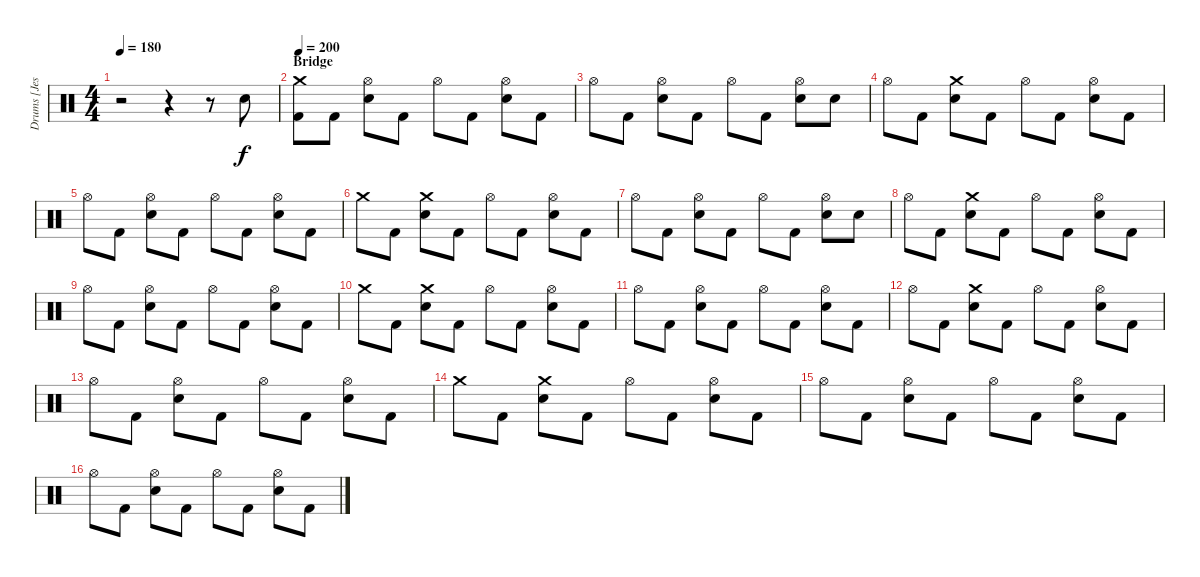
\track ("Drums [Jesse Ingelevics]" "Drums [Jes") {instrument percussion}
\staff {score}
\articulation defaults
\ts (4 4)
\tempo 180
\clef neutral
\ks c
r.2{dy f} r.4 r.8 "Electric Snare (hit)".8 |
\section ("" "Bridge")
\tempo 200
("Crash medium (hit)" "Kick (hit) 2").8 "Kick (hit) 2".8 ("Hi-Hat (open)" "Electric Snare (hit)").8 "Kick (hit) 2".8 "Hi-Hat (open)".8 "Kick (hit) 2".8 ("Hi-Hat (open)" "Electric Snare (hit)").8 "Kick (hit) 2".8 |
"Hi-Hat (open)".8 "Kick (hit) 2".8 ("Hi-Hat (open)" "Electric Snare (hit)").8 "Kick (hit) 2".8 "Hi-Hat (open)".8 "Kick (hit) 2".8 ("Hi-Hat (open)" "Electric Snare (hit)").8 "Electric Snare (hit)".8 |
"Hi-Hat (open)".8 "Kick (hit) 2".8 ("Crash medium (hit)" "Electric Snare (hit)").8 "Kick (hit) 2".8 "Hi-Hat (open)".8 "Kick (hit) 2".8 ("Hi-Hat (open)" "Electric Snare (hit)").8 "Kick (hit) 2".8 |
"Hi-Hat (open)".8 "Kick (hit) 2".8 ("Hi-Hat (open)" "Electric Snare (hit)").8 "Kick (hit) 2".8 "Hi-Hat (open)".8 "Kick (hit) 2".8 ("Hi-Hat (open)" "Electric Snare (hit)").8 "Kick (hit) 2".8 |
"Crash medium (hit)".8 "Kick (hit) 2".8 ("Crash medium (hit)" "Electric Snare (hit)").8 "Kick (hit) 2".8 "Hi-Hat (open)".8 "Kick (hit) 2".8 ("Hi-Hat (open)" "Electric Snare (hit)").8 "Kick (hit) 2".8 |
"Hi-Hat (open)".8 "Kick (hit) 2".8 ("Hi-Hat (open)" "Electric Snare (hit)").8 "Kick (hit) 2".8 "Hi-Hat (open)".8 "Kick (hit) 2".8 ("Hi-Hat (open)" "Electric Snare (hit)").8 "Electric Snare (hit)".8 |
"Hi-Hat (open)".8 "Kick (hit) 2".8 ("Crash medium (hit)" "Electric Snare (hit)").8 "Kick (hit) 2".8 "Hi-Hat (open)".8 "Kick (hit) 2".8 ("Hi-Hat (open)" "Electric Snare (hit)").8 "Kick (hit) 2".8 |
"Hi-Hat (open)".8 "Kick (hit) 2".8 ("Hi-Hat (open)" "Electric Snare (hit)").8 "Kick (hit) 2".8 "Hi-Hat (open)".8 "Kick (hit) 2".8 ("Hi-Hat (open)" "Electric Snare (hit)").8 "Kick (hit) 2".8 |
"Crash medium (hit)".8 "Kick (hit) 2".8 ("Crash medium (hit)" "Electric Snare (hit)").8 "Kick (hit) 2".8 "Hi-Hat (open)".8 "Kick (hit) 2".8 ("Hi-Hat (open)" "Electric Snare (hit)").8 "Kick (hit) 2".8 |
"Hi-Hat (open)".8 "Kick (hit) 2".8 ("Hi-Hat (open)" "Electric Snare (hit)").8 "Kick (hit) 2".8 "Hi-Hat (open)".8 "Kick (hit) 2".8 ("Hi-Hat (open)" "Electric Snare (hit)").8 "Kick (hit) 2".8 |
"Hi-Hat (open)".8 "Kick (hit) 2".8 ("Crash medium (hit)" "Electric Snare (hit)").8 "Kick (hit) 2".8 "Hi-Hat (open)".8 "Kick (hit) 2".8 ("Hi-Hat (open)" "Electric Snare (hit)").8 "Kick (hit) 2".8 |
"Hi-Hat (open)".8 "Kick (hit) 2".8 ("Hi-Hat (open)" "Electric Snare (hit)").8 "Kick (hit) 2".8 "Hi-Hat (open)".8 "Kick (hit) 2".8 ("Hi-Hat (open)" "Electric Snare (hit)").8 "Kick (hit) 2".8 |
"Crash medium (hit)".8 "Kick (hit) 2".8 ("Crash medium (hit)" "Electric Snare (hit)").8 "Kick (hit) 2".8 "Hi-Hat (open)".8 "Kick (hit) 2".8 ("Hi-Hat (open)" "Electric Snare (hit)").8 "Kick (hit) 2".8 |
"Hi-Hat (open)".8 "Kick (hit) 2".8 ("Hi-Hat (open)" "Electric Snare (hit)").8 "Kick (hit) 2".8 "Hi-Hat (open)".8 "Kick (hit) 2".8 ("Hi-Hat (open)" "Electric Snare (hit)").8 "Kick (hit) 2".8 |
"Hi-Hat (open)".8 "Kick (hit) 2".8 ("Hi-Hat (open)" "Electric Snare (hit)").8 "Kick (hit) 2".8 "Hi-Hat (open)".8 "Kick (hit) 2".8 ("Hi-Hat (open)" "Electric Snare (hit)").8 "Kick (hit) 2".8
